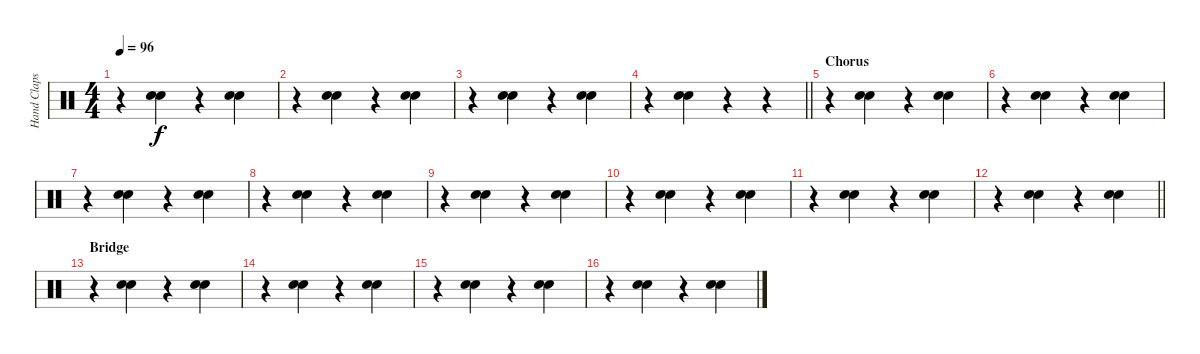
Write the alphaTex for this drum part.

\track ("Hand Claps" "Hand Claps") {instrument percussion}
\staff {score}
\articulation defaults
\ts (4 4)
\tempo 96
\clef neutral
\ks c
r.4{dy f} ("Hand Clap (hit)" "Hand Clap (hit)").4 r.4 ("Hand Clap (hit)" "Hand Clap (hit)").4 |
r.4 ("Hand Clap (hit)" "Hand Clap (hit)").4 r.4 ("Hand Clap (hit)" "Hand Clap (hit)").4 |
r.4 ("Hand Clap (hit)" "Hand Clap (hit)").4 r.4 ("Hand Clap (hit)" "Hand Clap (hit)").4 |
\barLineRight lightlight
r.4 ("Hand Clap (hit)" "Hand Clap (hit)").4 r.4 r.4 |
\section ("" "Chorus")
r.4 ("Hand Clap (hit)" "Hand Clap (hit)").4 r.4 ("Hand Clap (hit)" "Hand Clap (hit)").4 |
r.4 ("Hand Clap (hit)" "Hand Clap (hit)").4 r.4 ("Hand Clap (hit)" "Hand Clap (hit)").4 |
r.4 ("Hand Clap (hit)" "Hand Clap (hit)").4 r.4 ("Hand Clap (hit)" "Hand Clap (hit)").4 |
r.4 ("Hand Clap (hit)" "Hand Clap (hit)").4 r.4 ("Hand Clap (hit)" "Hand Clap (hit)").4 |
r.4 ("Hand Clap (hit)" "Hand Clap (hit)").4 r.4 ("Hand Clap (hit)" "Hand Clap (hit)").4 |
r.4 ("Hand Clap (hit)" "Hand Clap (hit)").4 r.4 ("Hand Clap (hit)" "Hand Clap (hit)").4 |
r.4 ("Hand Clap (hit)" "Hand Clap (hit)").4 r.4 ("Hand Clap (hit)" "Hand Clap (hit)").4 |
\barLineRight lightlight
r.4 ("Hand Clap (hit)" "Hand Clap (hit)").4 r.4 ("Hand Clap (hit)" "Hand Clap (hit)").4 |
\section ("" "Bridge")
r.4 ("Hand Clap (hit)" "Hand Clap (hit)").4 r.4 ("Hand Clap (hit)" "Hand Clap (hit)").4 |
r.4 ("Hand Clap (hit)" "Hand Clap (hit)").4 r.4 ("Hand Clap (hit)" "Hand Clap (hit)").4 |
r.4 ("Hand Clap (hit)" "Hand Clap (hit)").4 r.4 ("Hand Clap (hit)" "Hand Clap (hit)").4 |
r.4 ("Hand Clap (hit)" "Hand Clap (hit)").4 r.4 ("Hand Clap (hit)" "Hand Clap (hit)").4
